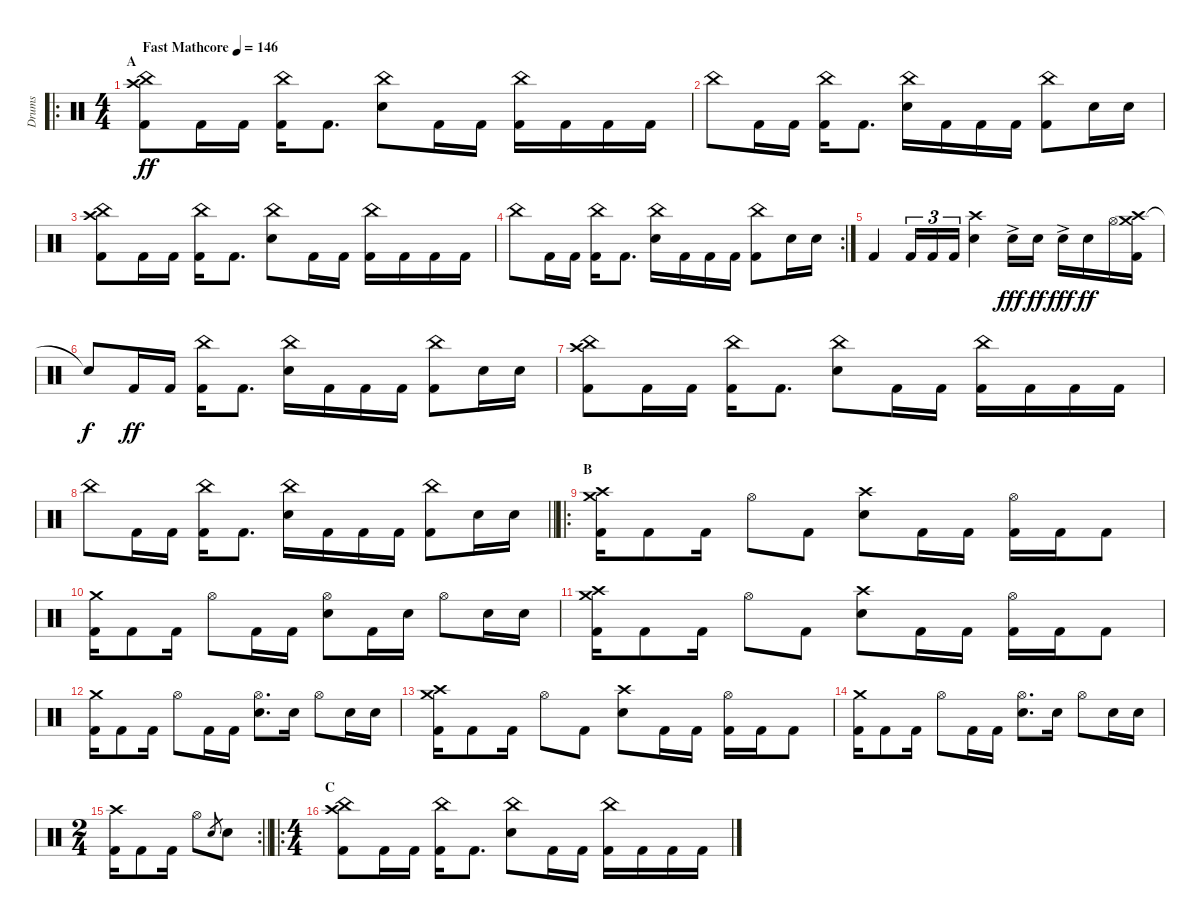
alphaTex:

\track ("Drums" "Drums") {instrument percussion}
\staff {score}
\articulation defaults
\ro
\ts (4 4)
\section ("" "A")
\tempo (146 "Fast Mathcore")
\clef neutral
\ks c
("Crash high (hit)" "China (hit)" "Kick (hit) 2").8{dy ff} "Kick (hit) 2".16 "Kick (hit) 2".16 ("China (hit)" "Kick (hit) 2").16 "Kick (hit) 2".8{d} ("China (hit)" "Electric Snare (hit)").8 "Kick (hit) 2".16 "Kick (hit) 2".16 ("China (hit)" "Kick (hit) 2").16 "Kick (hit) 2".16 "Kick (hit) 2".16 "Kick (hit) 2".16 |
"China (hit)".8 "Kick (hit) 2".16 "Kick (hit) 2".16 ("China (hit)" "Kick (hit) 2").16 "Kick (hit) 2".8{d} ("China (hit)" "Electric Snare (hit)").16 "Kick (hit) 2".16 "Kick (hit) 2".16 "Kick (hit) 2".16 ("China (hit)" "Kick (hit) 2").8 "Electric Snare (hit)".16 "Electric Snare (hit)".16 |
("Crash high (hit)" "China (hit)" "Kick (hit) 2").8 "Kick (hit) 2".16 "Kick (hit) 2".16 ("China (hit)" "Kick (hit) 2").16 "Kick (hit) 2".8{d} ("China (hit)" "Electric Snare (hit)").8 "Kick (hit) 2".16 "Kick (hit) 2".16 ("China (hit)" "Kick (hit) 2").16 "Kick (hit) 2".16 "Kick (hit) 2".16 "Kick (hit) 2".16 |
\rc 2 "China (hit)".8 "Kick (hit) 2".16 "Kick (hit) 2".16
("China (hit)" "Kick (hit) 2").16 "Kick (hit) 2".8{d} ("China (hit)" "Electric Snare (hit)").16 "Kick (hit) 2".16 "Kick (hit) 2".16 "Kick (hit) 2".16 ("China (hit)" "Kick (hit) 2").8 "Electric Snare (hit)".16 "Electric Snare (hit)".16 |
"Kick (hit) 2".4 "Kick (hit) 2".16{tu (3 2)} "Kick (hit) 2".16{tu (3 2)} "Kick (hit) 2".16{tu (3 2)} ("Crash high (hit)" "Electric Snare (hit)").4 "Electric Snare (hit)"{ac}.16{dy fff} "Electric Snare (hit)".16{dy ff} "Electric Snare (hit)"{ac}.16{dy fff} "Electric Snare (hit)".16{dy ff} "Hi-Hat (open)".16 ("Crash medium (hit)" "Crash high (hit)" "Kick (hit) 2").16 |
"Snare (hit)"{t}.8{dy f} "Kick (hit) 2".16{dy ff} "Kick (hit) 2".16 ("China (hit)" "Kick (hit) 2").16 "Kick (hit) 2".8{d} ("China (hit)" "Electric Snare (hit)").16 "Kick (hit) 2".16 "Kick (hit) 2".16 "Kick (hit) 2".16 ("China (hit)" "Kick (hit) 2").8 "Electric Snare (hit)".16 "Electric Snare (hit)".16 |
("Crash high (hit)" "China (hit)" "Kick (hit) 2").8 "Kick (hit) 2".16 "Kick (hit) 2".16 ("China (hit)" "Kick (hit) 2").16 "Kick (hit) 2".8{d} ("China (hit)" "Electric Snare (hit)").8 "Kick (hit) 2".16 "Kick (hit) 2".16 ("China (hit)" "Kick (hit) 2").16 "Kick (hit) 2".16 "Kick (hit) 2".16 "Kick (hit) 2".16 |
\barLineRight lightlight "China (hit)".8 "Kick (hit) 2".16 "Kick (hit) 2".16
("China (hit)" "Kick (hit) 2").16 "Kick (hit) 2".8{d} ("China (hit)" "Electric Snare (hit)").16 "Kick (hit) 2".16 "Kick (hit) 2".16 "Kick (hit) 2".16 ("China (hit)" "Kick (hit) 2").8 "Electric Snare (hit)".16 "Electric Snare (hit)".16 |
\ro
\section ("" "B")
("Crash medium (hit)" "Crash high (hit)" "Kick (hit) 2").16 "Kick (hit) 2".8 "Kick (hit) 2".16 "Hi-Hat (open)".8 "Kick (hit) 2".8 ("Crash high (hit)" "Electric Snare (hit)").8 "Kick (hit) 2".16 "Kick (hit) 2".16 ("Hi-Hat (open)" "Kick (hit) 2").16 "Kick (hit) 2".16 "Kick (hit) 2".8 |
("Crash medium (hit)" "Kick (hit) 2").16 "Kick (hit) 2".8 "Kick (hit) 2".16 "Hi-Hat (open)".8 "Kick (hit) 2".16 "Kick (hit) 2".16 ("Hi-Hat (open)" "Electric Snare (hit)").8 "Kick (hit) 2".16 "Electric Snare (hit)".16 "Hi-Hat (open)".8 "Electric Snare (hit)".16 "Electric Snare (hit)".16 |
("Crash medium (hit)" "Crash high (hit)" "Kick (hit) 2").16 "Kick (hit) 2".8 "Kick (hit) 2".16 "Hi-Hat (open)".8 "Kick (hit) 2".8 ("Crash high (hit)" "Electric Snare (hit)").8 "Kick (hit) 2".16 "Kick (hit) 2".16 ("Hi-Hat (open)" "Kick (hit) 2").16 "Kick (hit) 2".16 "Kick (hit) 2".8 |
("Crash medium (hit)" "Kick (hit) 2").16 "Kick (hit) 2".8 "Kick (hit) 2".16 "Hi-Hat (open)".8 "Kick (hit) 2".16 "Kick (hit) 2".16 ("Hi-Hat (open)" "Electric Snare (hit)").8{d} "Electric Snare (hit)".16 "Hi-Hat (open)".8 "Electric Snare (hit)".16 "Electric Snare (hit)".16 |
("Crash medium (hit)" "Crash high (hit)" "Kick (hit) 2").16 "Kick (hit) 2".8 "Kick (hit) 2".16 "Hi-Hat (open)".8 "Kick (hit) 2".8 ("Crash high (hit)" "Electric Snare (hit)").8 "Kick (hit) 2".16 "Kick (hit) 2".16 ("Hi-Hat (open)" "Kick (hit) 2").16 "Kick (hit) 2".16 "Kick (hit) 2".8 |
("Crash medium (hit)" "Kick (hit) 2").16 "Kick (hit) 2".8 "Kick (hit) 2".16 "Hi-Hat (open)".8 "Kick (hit) 2".16 "Kick (hit) 2".16 ("Hi-Hat (open)" "Electric Snare (hit)").8{d} "Electric Snare (hit)".16 "Hi-Hat (open)".8 "Electric Snare (hit)".16 "Electric Snare (hit)".16 |
\rc 2
\ts (2 4)
\barLineRight lightlight
("Crash high (hit)" "Kick (hit) 2").16 "Kick (hit) 2".8 "Kick (hit) 2".16 "Hi-Hat (open)".8 "Electric Snare (hit)".8{gr} "Electric Snare (hit)".8 |
\ro
\ts (4 4)
\section ("" "C")
("Crash high (hit)" "China (hit)" "Kick (hit) 2").8 "Kick (hit) 2".16 "Kick (hit) 2".16 ("China (hit)" "Kick (hit) 2").16 "Kick (hit) 2".8{d} ("China (hit)" "Electric Snare (hit)").8 "Kick (hit) 2".16 "Kick (hit) 2".16 ("China (hit)" "Kick (hit) 2").16 "Kick (hit) 2".16 "Kick (hit) 2".16 "Kick (hit) 2".16
